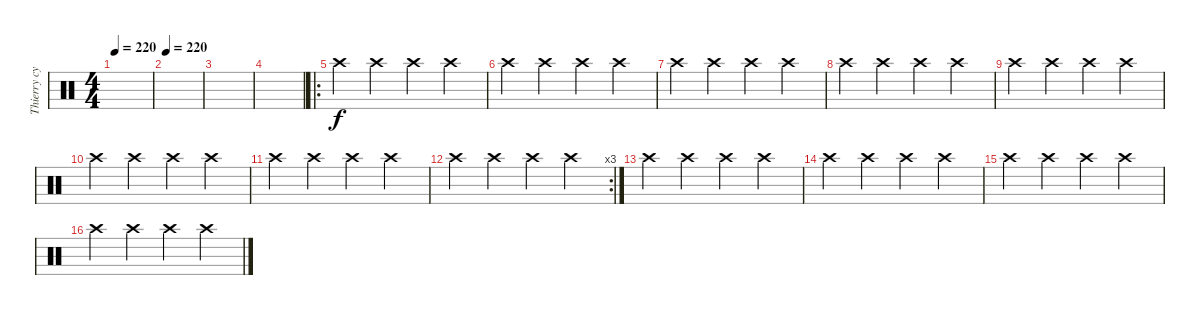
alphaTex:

\track ("Thierry cymbales" "Thierry cy") {instrument percussion}
\staff {score}
\articulation defaults
\ts (4 4)
\tempo 220
\clef neutral
\ks c
|
\tempo 220
|
|
|
\ro "Crash high (hit)".4 "Crash high (hit)".4 "Crash high (hit)".4 "Crash high (hit)".4
|
"Crash high (hit)".4 "Crash high (hit)".4 "Crash high (hit)".4 "Crash high (hit)".4 |
"Crash high (hit)".4 "Crash high (hit)".4 "Crash high (hit)".4 "Crash high (hit)".4 |
"Crash high (hit)".4 "Crash high (hit)".4 "Crash high (hit)".4 "Crash high (hit)".4 |
"Crash high (hit)".4 "Crash high (hit)".4 "Crash high (hit)".4 "Crash high (hit)".4 |
"Crash high (hit)".4 "Crash high (hit)".4 "Crash high (hit)".4 "Crash high (hit)".4 |
"Crash high (hit)".4 "Crash high (hit)".4 "Crash high (hit)".4 "Crash high (hit)".4 |
\rc 3 "Crash high (hit)".4 "Crash high (hit)".4 "Crash high (hit)".4 "Crash high (hit)".4
|
"Crash high (hit)".4 "Crash high (hit)".4 "Crash high (hit)".4 "Crash high (hit)".4 |
"Crash high (hit)".4 "Crash high (hit)".4 "Crash high (hit)".4 "Crash high (hit)".4 |
"Crash high (hit)".4 "Crash high (hit)".4 "Crash high (hit)".4 "Crash high (hit)".4 |
"Crash high (hit)".4 "Crash high (hit)".4 "Crash high (hit)".4 "Crash high (hit)".4
